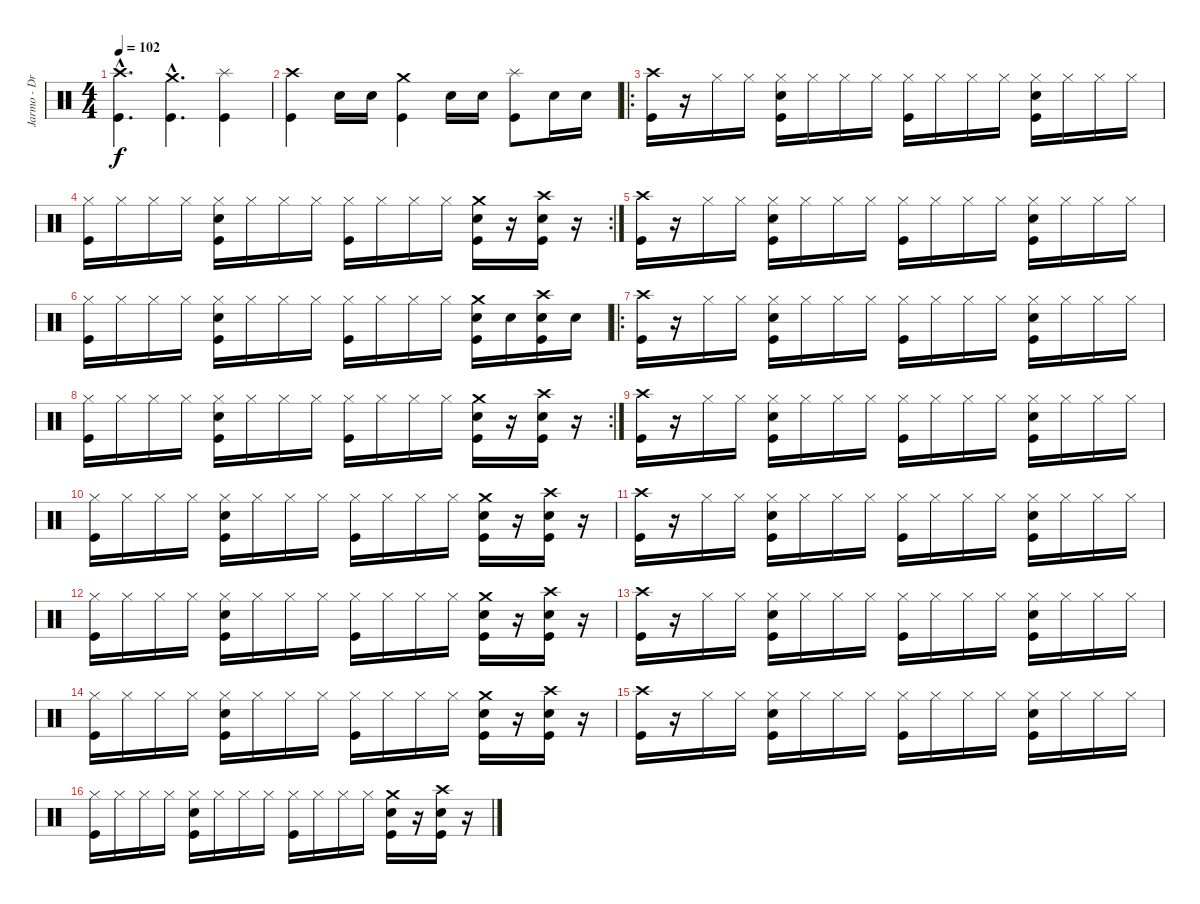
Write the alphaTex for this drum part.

\track ("Jarmo - Drums" "Jarmo - Dr") {instrument percussion}
\staff {score}
\articulation defaults
\ts (4 4)
\tempo 102
\clef neutral
\ks c
("Crash high (hit)"{hac} "Kick (hit)"{hac}).4{d dy f} ("Crash medium (hit)"{hac} "Kick (hit)"{hac}).4{d} ("Splash (hit)" "Kick (hit)").4 |
("Crash high (hit)" "Kick (hit)").4 "Electric Snare (hit)".16 "Electric Snare (hit)".16 ("Crash medium (hit)" "Kick (hit)").4 "Electric Snare (hit)".16 "Electric Snare (hit)".16 ("Splash (hit)" "Kick (hit)").8 "Electric Snare (hit)".16 "Electric Snare (hit)".16 |
\ro
("Kick (hit)" "Crash high (hit)").16 r.16 "Hi-Hat (closed)".16 "Hi-Hat (closed)".16 ("Kick (hit)" "Electric Snare (hit)" "Hi-Hat (closed)").16 "Hi-Hat (closed)".16 "Hi-Hat (closed)".16 "Hi-Hat (closed)".16 ("Kick (hit)" "Hi-Hat (closed)").16 "Hi-Hat (closed)".16 "Hi-Hat (closed)".16 "Hi-Hat (closed)".16 ("Kick (hit)" "Electric Snare (hit)" "Hi-Hat (closed)").16 "Hi-Hat (closed)".16 "Hi-Hat (closed)".16 "Hi-Hat (closed)".16 |
\rc 2
("Kick (hit)" "Hi-Hat (closed)").16 "Hi-Hat (closed)".16 "Hi-Hat (closed)".16 "Hi-Hat (closed)".16 ("Kick (hit)" "Electric Snare (hit)" "Hi-Hat (closed)").16 "Hi-Hat (closed)".16 "Hi-Hat (closed)".16 "Hi-Hat (closed)".16 ("Kick (hit)" "Hi-Hat (closed)").16 "Hi-Hat (closed)".16 "Hi-Hat (closed)".16 "Hi-Hat (closed)".16 ("Kick (hit)" "Electric Snare (hit)" "Crash medium (hit)").16 r.16 ("Kick (hit)" "Electric Snare (hit)" "Crash high (hit)").16 r.16 |
("Kick (hit)" "Crash high (hit)").16 r.16 "Hi-Hat (closed)".16 "Hi-Hat (closed)".16 ("Kick (hit)" "Electric Snare (hit)" "Hi-Hat (closed)").16 "Hi-Hat (closed)".16 "Hi-Hat (closed)".16 "Hi-Hat (closed)".16 ("Kick (hit)" "Hi-Hat (closed)").16 "Hi-Hat (closed)".16 "Hi-Hat (closed)".16 "Hi-Hat (closed)".16 ("Kick (hit)" "Electric Snare (hit)" "Hi-Hat (closed)").16 "Hi-Hat (closed)".16 "Hi-Hat (closed)".16 "Hi-Hat (closed)".16 |
("Kick (hit)" "Hi-Hat (closed)").16 "Hi-Hat (closed)".16 "Hi-Hat (closed)".16 "Hi-Hat (closed)".16 ("Kick (hit)" "Electric Snare (hit)" "Hi-Hat (closed)").16 "Hi-Hat (closed)".16 "Hi-Hat (closed)".16 "Hi-Hat (closed)".16 ("Kick (hit)" "Hi-Hat (closed)").16 "Hi-Hat (closed)".16 "Hi-Hat (closed)".16 "Hi-Hat (closed)".16 ("Kick (hit)" "Electric Snare (hit)" "Crash medium (hit)").16 "Electric Snare (hit)".16 ("Kick (hit)" "Electric Snare (hit)" "Crash high (hit)").16 "Electric Snare (hit)".16 |
\ro
("Kick (hit)" "Crash high (hit)").16 r.16 "Hi-Hat (closed)".16 "Hi-Hat (closed)".16 ("Kick (hit)" "Electric Snare (hit)" "Hi-Hat (closed)").16 "Hi-Hat (closed)".16 "Hi-Hat (closed)".16 "Hi-Hat (closed)".16 ("Kick (hit)" "Hi-Hat (closed)").16 "Hi-Hat (closed)".16 "Hi-Hat (closed)".16 "Hi-Hat (closed)".16 ("Kick (hit)" "Electric Snare (hit)" "Hi-Hat (closed)").16 "Hi-Hat (closed)".16 "Hi-Hat (closed)".16 "Hi-Hat (closed)".16 |
\rc 2
("Kick (hit)" "Hi-Hat (closed)").16 "Hi-Hat (closed)".16 "Hi-Hat (closed)".16 "Hi-Hat (closed)".16 ("Kick (hit)" "Electric Snare (hit)" "Hi-Hat (closed)").16 "Hi-Hat (closed)".16 "Hi-Hat (closed)".16 "Hi-Hat (closed)".16 ("Kick (hit)" "Hi-Hat (closed)").16 "Hi-Hat (closed)".16 "Hi-Hat (closed)".16 "Hi-Hat (closed)".16 ("Kick (hit)" "Electric Snare (hit)" "Crash medium (hit)").16 r.16 ("Kick (hit)" "Electric Snare (hit)" "Crash high (hit)").16 r.16 |
("Kick (hit)" "Crash high (hit)").16 r.16 "Hi-Hat (closed)".16 "Hi-Hat (closed)".16 ("Kick (hit)" "Electric Snare (hit)" "Hi-Hat (closed)").16 "Hi-Hat (closed)".16 "Hi-Hat (closed)".16 "Hi-Hat (closed)".16 ("Kick (hit)" "Hi-Hat (closed)").16 "Hi-Hat (closed)".16 "Hi-Hat (closed)".16 "Hi-Hat (closed)".16 ("Kick (hit)" "Electric Snare (hit)" "Hi-Hat (closed)").16 "Hi-Hat (closed)".16 "Hi-Hat (closed)".16 "Hi-Hat (closed)".16 |
("Kick (hit)" "Hi-Hat (closed)").16 "Hi-Hat (closed)".16 "Hi-Hat (closed)".16 "Hi-Hat (closed)".16 ("Kick (hit)" "Electric Snare (hit)" "Hi-Hat (closed)").16 "Hi-Hat (closed)".16 "Hi-Hat (closed)".16 "Hi-Hat (closed)".16 ("Kick (hit)" "Hi-Hat (closed)").16 "Hi-Hat (closed)".16 "Hi-Hat (closed)".16 "Hi-Hat (closed)".16 ("Kick (hit)" "Electric Snare (hit)" "Crash medium (hit)").16 r.16 ("Kick (hit)" "Electric Snare (hit)" "Crash high (hit)").16 r.16 |
("Kick (hit)" "Crash high (hit)").16 r.16 "Hi-Hat (closed)".16 "Hi-Hat (closed)".16 ("Kick (hit)" "Electric Snare (hit)" "Hi-Hat (closed)").16 "Hi-Hat (closed)".16 "Hi-Hat (closed)".16 "Hi-Hat (closed)".16 ("Kick (hit)" "Hi-Hat (closed)").16 "Hi-Hat (closed)".16 "Hi-Hat (closed)".16 "Hi-Hat (closed)".16 ("Kick (hit)" "Electric Snare (hit)" "Hi-Hat (closed)").16 "Hi-Hat (closed)".16 "Hi-Hat (closed)".16 "Hi-Hat (closed)".16 |
("Kick (hit)" "Hi-Hat (closed)").16 "Hi-Hat (closed)".16 "Hi-Hat (closed)".16 "Hi-Hat (closed)".16 ("Kick (hit)" "Electric Snare (hit)" "Hi-Hat (closed)").16 "Hi-Hat (closed)".16 "Hi-Hat (closed)".16 "Hi-Hat (closed)".16 ("Kick (hit)" "Hi-Hat (closed)").16 "Hi-Hat (closed)".16 "Hi-Hat (closed)".16 "Hi-Hat (closed)".16 ("Kick (hit)" "Electric Snare (hit)" "Crash medium (hit)").16 r.16 ("Kick (hit)" "Electric Snare (hit)" "Crash high (hit)").16 r.16 |
("Kick (hit)" "Crash high (hit)").16 r.16 "Hi-Hat (closed)".16 "Hi-Hat (closed)".16 ("Kick (hit)" "Electric Snare (hit)" "Hi-Hat (closed)").16 "Hi-Hat (closed)".16 "Hi-Hat (closed)".16 "Hi-Hat (closed)".16 ("Kick (hit)" "Hi-Hat (closed)").16 "Hi-Hat (closed)".16 "Hi-Hat (closed)".16 "Hi-Hat (closed)".16 ("Kick (hit)" "Electric Snare (hit)" "Hi-Hat (closed)").16 "Hi-Hat (closed)".16 "Hi-Hat (closed)".16 "Hi-Hat (closed)".16 |
("Kick (hit)" "Hi-Hat (closed)").16 "Hi-Hat (closed)".16 "Hi-Hat (closed)".16 "Hi-Hat (closed)".16 ("Kick (hit)" "Electric Snare (hit)" "Hi-Hat (closed)").16 "Hi-Hat (closed)".16 "Hi-Hat (closed)".16 "Hi-Hat (closed)".16 ("Kick (hit)" "Hi-Hat (closed)").16 "Hi-Hat (closed)".16 "Hi-Hat (closed)".16 "Hi-Hat (closed)".16 ("Kick (hit)" "Electric Snare (hit)" "Crash medium (hit)").16 r.16 ("Kick (hit)" "Electric Snare (hit)" "Crash high (hit)").16 r.16 |
("Kick (hit)" "Crash high (hit)").16 r.16 "Hi-Hat (closed)".16 "Hi-Hat (closed)".16 ("Kick (hit)" "Electric Snare (hit)" "Hi-Hat (closed)").16 "Hi-Hat (closed)".16 "Hi-Hat (closed)".16 "Hi-Hat (closed)".16 ("Kick (hit)" "Hi-Hat (closed)").16 "Hi-Hat (closed)".16 "Hi-Hat (closed)".16 "Hi-Hat (closed)".16 ("Kick (hit)" "Electric Snare (hit)" "Hi-Hat (closed)").16 "Hi-Hat (closed)".16 "Hi-Hat (closed)".16 "Hi-Hat (closed)".16 |
("Kick (hit)" "Hi-Hat (closed)").16 "Hi-Hat (closed)".16 "Hi-Hat (closed)".16 "Hi-Hat (closed)".16 ("Kick (hit)" "Electric Snare (hit)" "Hi-Hat (closed)").16 "Hi-Hat (closed)".16 "Hi-Hat (closed)".16 "Hi-Hat (closed)".16 ("Kick (hit)" "Hi-Hat (closed)").16 "Hi-Hat (closed)".16 "Hi-Hat (closed)".16 "Hi-Hat (closed)".16 ("Kick (hit)" "Electric Snare (hit)" "Crash medium (hit)").16 r.16 ("Kick (hit)" "Electric Snare (hit)" "Crash high (hit)").16 r.16
